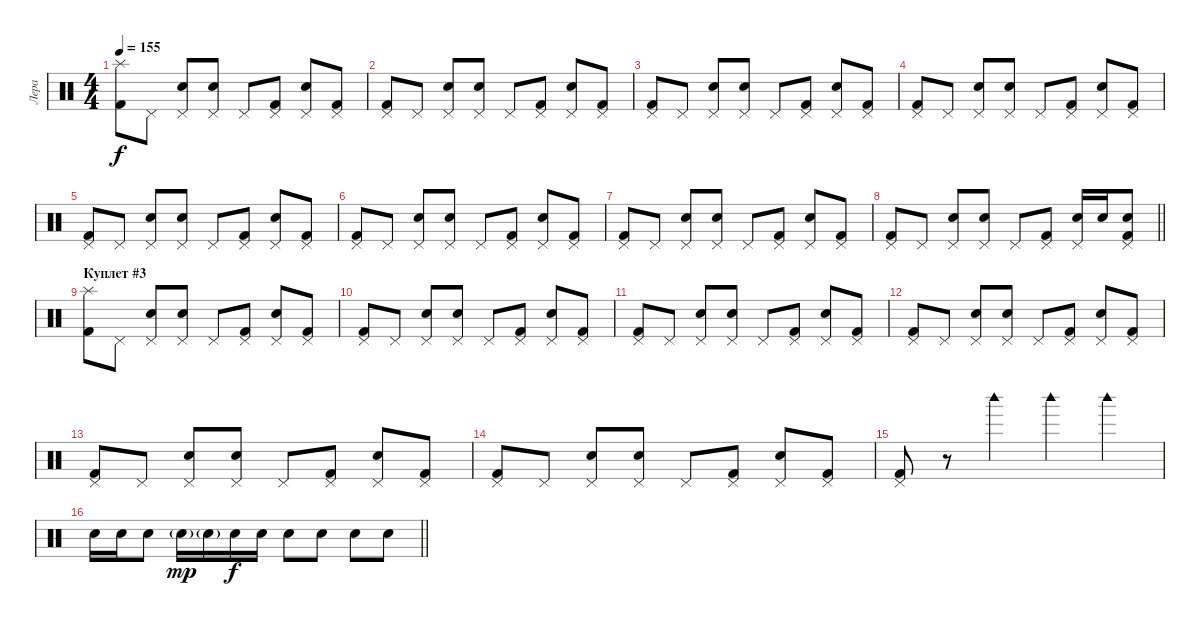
\track ("Лера" "Лера") {instrument percussion}
\staff {score}
\articulation defaults
\ts (4 4)
\tempo 155
\clef neutral
\ks c
("Splash (hit)" "Kick (hit) 2").8{dy f} "Pedal Hi-Hat (hit)".8 ("Pedal Hi-Hat (hit)" "Electric Snare (hit)").8 ("Pedal Hi-Hat (hit)" "Electric Snare (hit)").8 "Pedal Hi-Hat (hit)".8 ("Pedal Hi-Hat (hit)" "Kick (hit) 2").8 ("Pedal Hi-Hat (hit)" "Electric Snare (hit)").8 ("Pedal Hi-Hat (hit)" "Kick (hit) 2").8 |
("Pedal Hi-Hat (hit)" "Kick (hit) 2").8 "Pedal Hi-Hat (hit)".8 ("Pedal Hi-Hat (hit)" "Electric Snare (hit)").8 ("Pedal Hi-Hat (hit)" "Electric Snare (hit)").8 "Pedal Hi-Hat (hit)".8 ("Pedal Hi-Hat (hit)" "Kick (hit) 2").8 ("Pedal Hi-Hat (hit)" "Electric Snare (hit)").8 ("Pedal Hi-Hat (hit)" "Kick (hit) 2").8 |
("Pedal Hi-Hat (hit)" "Kick (hit) 2").8 "Pedal Hi-Hat (hit)".8 ("Pedal Hi-Hat (hit)" "Electric Snare (hit)").8 ("Pedal Hi-Hat (hit)" "Electric Snare (hit)").8 "Pedal Hi-Hat (hit)".8 ("Pedal Hi-Hat (hit)" "Kick (hit) 2").8 ("Pedal Hi-Hat (hit)" "Electric Snare (hit)").8 ("Pedal Hi-Hat (hit)" "Kick (hit) 2").8 |
("Pedal Hi-Hat (hit)" "Kick (hit) 2").8 "Pedal Hi-Hat (hit)".8 ("Pedal Hi-Hat (hit)" "Electric Snare (hit)").8 ("Pedal Hi-Hat (hit)" "Electric Snare (hit)").8 "Pedal Hi-Hat (hit)".8 ("Pedal Hi-Hat (hit)" "Kick (hit) 2").8 ("Pedal Hi-Hat (hit)" "Electric Snare (hit)").8 ("Pedal Hi-Hat (hit)" "Kick (hit) 2").8 |
("Pedal Hi-Hat (hit)" "Kick (hit) 2").8 "Pedal Hi-Hat (hit)".8 ("Pedal Hi-Hat (hit)" "Electric Snare (hit)").8 ("Pedal Hi-Hat (hit)" "Electric Snare (hit)").8 "Pedal Hi-Hat (hit)".8 ("Pedal Hi-Hat (hit)" "Kick (hit) 2").8 ("Pedal Hi-Hat (hit)" "Electric Snare (hit)").8 ("Pedal Hi-Hat (hit)" "Kick (hit) 2").8 |
("Pedal Hi-Hat (hit)" "Kick (hit) 2").8 "Pedal Hi-Hat (hit)".8 ("Pedal Hi-Hat (hit)" "Electric Snare (hit)").8 ("Pedal Hi-Hat (hit)" "Electric Snare (hit)").8 "Pedal Hi-Hat (hit)".8 ("Pedal Hi-Hat (hit)" "Kick (hit) 2").8 ("Pedal Hi-Hat (hit)" "Electric Snare (hit)").8 ("Pedal Hi-Hat (hit)" "Kick (hit) 2").8 |
("Pedal Hi-Hat (hit)" "Kick (hit) 2").8 "Pedal Hi-Hat (hit)".8 ("Pedal Hi-Hat (hit)" "Electric Snare (hit)").8 ("Pedal Hi-Hat (hit)" "Electric Snare (hit)").8 "Pedal Hi-Hat (hit)".8 ("Pedal Hi-Hat (hit)" "Kick (hit) 2").8 ("Pedal Hi-Hat (hit)" "Electric Snare (hit)").8 ("Pedal Hi-Hat (hit)" "Kick (hit) 2").8 |
\barLineRight lightlight
("Pedal Hi-Hat (hit)" "Kick (hit) 2").8 "Pedal Hi-Hat (hit)".8 ("Pedal Hi-Hat (hit)" "Electric Snare (hit)").8 ("Pedal Hi-Hat (hit)" "Electric Snare (hit)").8 "Pedal Hi-Hat (hit)".8 ("Pedal Hi-Hat (hit)" "Kick (hit) 2").8 ("Pedal Hi-Hat (hit)" "Electric Snare (hit)").16 "Electric Snare (hit)".16 ("Pedal Hi-Hat (hit)" "Electric Snare (hit)" "Kick (hit) 2").8 |
\section ("" "Куплет #3")
("Splash (hit)" "Kick (hit) 2").8 "Pedal Hi-Hat (hit)".8 ("Pedal Hi-Hat (hit)" "Electric Snare (hit)").8 ("Pedal Hi-Hat (hit)" "Electric Snare (hit)").8 "Pedal Hi-Hat (hit)".8 ("Pedal Hi-Hat (hit)" "Kick (hit) 2").8 ("Pedal Hi-Hat (hit)" "Electric Snare (hit)").8 ("Pedal Hi-Hat (hit)" "Kick (hit) 2").8 |
("Pedal Hi-Hat (hit)" "Kick (hit) 2").8 "Pedal Hi-Hat (hit)".8 ("Pedal Hi-Hat (hit)" "Electric Snare (hit)").8 ("Pedal Hi-Hat (hit)" "Electric Snare (hit)").8 "Pedal Hi-Hat (hit)".8 ("Pedal Hi-Hat (hit)" "Kick (hit) 2").8 ("Pedal Hi-Hat (hit)" "Electric Snare (hit)").8 ("Pedal Hi-Hat (hit)" "Kick (hit) 2").8 |
("Pedal Hi-Hat (hit)" "Kick (hit) 2").8 "Pedal Hi-Hat (hit)".8 ("Pedal Hi-Hat (hit)" "Electric Snare (hit)").8 ("Pedal Hi-Hat (hit)" "Electric Snare (hit)").8 "Pedal Hi-Hat (hit)".8 ("Pedal Hi-Hat (hit)" "Kick (hit) 2").8 ("Pedal Hi-Hat (hit)" "Electric Snare (hit)").8 ("Pedal Hi-Hat (hit)" "Kick (hit) 2").8 |
("Pedal Hi-Hat (hit)" "Kick (hit) 2").8 "Pedal Hi-Hat (hit)".8 ("Pedal Hi-Hat (hit)" "Electric Snare (hit)").8 ("Pedal Hi-Hat (hit)" "Electric Snare (hit)").8 "Pedal Hi-Hat (hit)".8 ("Pedal Hi-Hat (hit)" "Kick (hit) 2").8 ("Pedal Hi-Hat (hit)" "Electric Snare (hit)").8 ("Pedal Hi-Hat (hit)" "Kick (hit) 2").8 |
("Pedal Hi-Hat (hit)" "Kick (hit) 2").8 "Pedal Hi-Hat (hit)".8 ("Pedal Hi-Hat (hit)" "Electric Snare (hit)").8 ("Pedal Hi-Hat (hit)" "Electric Snare (hit)").8 "Pedal Hi-Hat (hit)".8 ("Pedal Hi-Hat (hit)" "Kick (hit) 2").8 ("Pedal Hi-Hat (hit)" "Electric Snare (hit)").8 ("Pedal Hi-Hat (hit)" "Kick (hit) 2").8 |
("Pedal Hi-Hat (hit)" "Kick (hit) 2").8 "Pedal Hi-Hat (hit)".8 ("Pedal Hi-Hat (hit)" "Electric Snare (hit)").8 ("Pedal Hi-Hat (hit)" "Electric Snare (hit)").8 "Pedal Hi-Hat (hit)".8 ("Pedal Hi-Hat (hit)" "Kick (hit) 2").8 ("Pedal Hi-Hat (hit)" "Electric Snare (hit)").8 ("Pedal Hi-Hat (hit)" "Kick (hit) 2").8 |
("Pedal Hi-Hat (hit)" "Kick (hit) 2").8 r.8 "Woodblock high (hit)".4 "Woodblock high (hit)".4 "Woodblock high (hit)".4 |
\barLineRight lightlight "Electric Snare (hit)".16 "Electric Snare (hit)".16 "Electric Snare (hit)".8 "Electric Snare (hit)"{g}.16{dy mp} "Electric Snare (hit)"{g}.16 "Electric Snare (hit)".16{dy f} "Electric Snare (hit)".16 "Electric Snare (hit)".8 "Electric Snare (hit)".8 "Electric Snare (hit)".8 "Electric Snare (hit)".8
